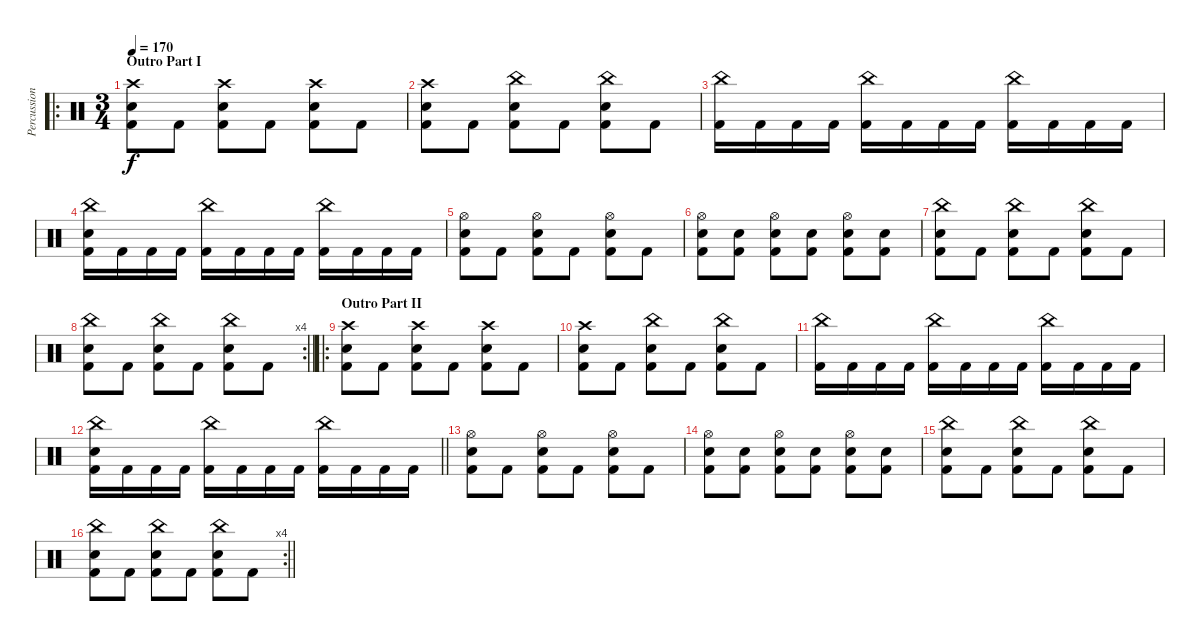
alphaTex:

\track ("Percussion" "Percussion") {instrument percussion}
\staff {score}
\articulation defaults
\ro
\ts (3 4)
\section ("" "Outro Part I")
\tempo 170
\clef neutral
\ks c
("Crash high (hit)" "Electric Snare (hit)" "Kick (hit) 2").8{dy f} "Kick (hit) 2".8 ("Crash high (hit)" "Electric Snare (hit)" "Kick (hit) 2").8 "Kick (hit) 2".8 ("Crash high (hit)" "Electric Snare (hit)" "Kick (hit) 2").8 "Kick (hit) 2".8 |
("Crash high (hit)" "Electric Snare (hit)" "Kick (hit) 2").8 "Kick (hit) 2".8 ("China (hit)" "Electric Snare (hit)" "Kick (hit) 2").8 "Kick (hit) 2".8 ("China (hit)" "Electric Snare (hit)" "Kick (hit) 2").8 "Kick (hit) 2".8 |
("China (hit)" "Kick (hit) 2").16 "Kick (hit) 2".16 "Kick (hit) 2".16 "Kick (hit) 2".16 ("China (hit)" "Kick (hit) 2").16 "Kick (hit) 2".16 "Kick (hit) 2".16 "Kick (hit) 2".16 ("China (hit)" "Kick (hit) 2").16 "Kick (hit) 2".16 "Kick (hit) 2".16 "Kick (hit) 2".16 |
("China (hit)" "Electric Snare (hit)" "Kick (hit) 2").16 "Kick (hit) 2".16 "Kick (hit) 2".16 "Kick (hit) 2".16 ("China (hit)" "Kick (hit) 2").16 "Kick (hit) 2".16 "Kick (hit) 2".16 "Kick (hit) 2".16 ("China (hit)" "Kick (hit) 2").16 "Kick (hit) 2".16 "Kick (hit) 2".16 "Kick (hit) 2".16 |
("Hi-Hat (open)" "Electric Snare (hit)" "Kick (hit) 2").8 "Kick (hit) 2".8 ("Hi-Hat (open)" "Electric Snare (hit)" "Kick (hit) 2").8 "Kick (hit) 2".8 ("Hi-Hat (open)" "Electric Snare (hit)" "Kick (hit) 2").8 "Kick (hit) 2".8 |
("Hi-Hat (open)" "Electric Snare (hit)" "Kick (hit) 2").8 ("Electric Snare (hit)" "Kick (hit) 2").8 ("Hi-Hat (open)" "Electric Snare (hit)" "Kick (hit) 2").8 ("Electric Snare (hit)" "Kick (hit) 2").8 ("Hi-Hat (open)" "Electric Snare (hit)" "Kick (hit) 2").8 ("Electric Snare (hit)" "Kick (hit) 2").8 |
("China (hit)" "Electric Snare (hit)" "Kick (hit) 2").8 "Kick (hit) 2".8 ("China (hit)" "Electric Snare (hit)" "Kick (hit) 2").8 "Kick (hit) 2".8 ("China (hit)" "Electric Snare (hit)" "Kick (hit) 2").8 "Kick (hit) 2".8 |
\rc 4
\barLineRight lightlight
("China (hit)" "Electric Snare (hit)" "Kick (hit) 2").8 "Kick (hit) 2".8 ("China (hit)" "Electric Snare (hit)" "Kick (hit) 2").8 "Kick (hit) 2".8 ("China (hit)" "Electric Snare (hit)" "Kick (hit) 2").8 "Kick (hit) 2".8 |
\ro
\section ("" "Outro Part II")
("Crash high (hit)" "Electric Snare (hit)" "Kick (hit) 2").8 "Kick (hit) 2".8 ("Crash high (hit)" "Electric Snare (hit)" "Kick (hit) 2").8 "Kick (hit) 2".8 ("Crash high (hit)" "Electric Snare (hit)" "Kick (hit) 2").8 "Kick (hit) 2".8 |
("Crash high (hit)" "Electric Snare (hit)" "Kick (hit) 2").8 "Kick (hit) 2".8 ("China (hit)" "Electric Snare (hit)" "Kick (hit) 2").8 "Kick (hit) 2".8 ("China (hit)" "Electric Snare (hit)" "Kick (hit) 2").8 "Kick (hit) 2".8 |
("China (hit)" "Kick (hit) 2").16 "Kick (hit) 2".16 "Kick (hit) 2".16 "Kick (hit) 2".16 ("China (hit)" "Kick (hit) 2").16 "Kick (hit) 2".16 "Kick (hit) 2".16 "Kick (hit) 2".16 ("China (hit)" "Kick (hit) 2").16 "Kick (hit) 2".16 "Kick (hit) 2".16 "Kick (hit) 2".16 |
\barLineRight lightlight
("China (hit)" "Electric Snare (hit)" "Kick (hit) 2").16 "Kick (hit) 2".16 "Kick (hit) 2".16 "Kick (hit) 2".16 ("China (hit)" "Kick (hit) 2").16 "Kick (hit) 2".16 "Kick (hit) 2".16 "Kick (hit) 2".16 ("China (hit)" "Kick (hit) 2").16 "Kick (hit) 2".16 "Kick (hit) 2".16 "Kick (hit) 2".16 |
("Hi-Hat (open)" "Electric Snare (hit)" "Kick (hit) 2").8 "Kick (hit) 2".8 ("Hi-Hat (open)" "Electric Snare (hit)" "Kick (hit) 2").8 "Kick (hit) 2".8 ("Hi-Hat (open)" "Electric Snare (hit)" "Kick (hit) 2").8 "Kick (hit) 2".8 |
("Hi-Hat (open)" "Electric Snare (hit)" "Kick (hit) 2").8 ("Electric Snare (hit)" "Kick (hit) 2").8 ("Hi-Hat (open)" "Electric Snare (hit)" "Kick (hit) 2").8 ("Electric Snare (hit)" "Kick (hit) 2").8 ("Hi-Hat (open)" "Electric Snare (hit)" "Kick (hit) 2").8 ("Electric Snare (hit)" "Kick (hit) 2").8 |
("China (hit)" "Electric Snare (hit)" "Kick (hit) 2").8 "Kick (hit) 2".8 ("China (hit)" "Electric Snare (hit)" "Kick (hit) 2").8 "Kick (hit) 2".8 ("China (hit)" "Electric Snare (hit)" "Kick (hit) 2").8 "Kick (hit) 2".8 |
\rc 4
\barLineRight lightlight
("China (hit)" "Electric Snare (hit)" "Kick (hit) 2").8 "Kick (hit) 2".8 ("China (hit)" "Electric Snare (hit)" "Kick (hit) 2").8 "Kick (hit) 2".8 ("China (hit)" "Electric Snare (hit)" "Kick (hit) 2").8 "Kick (hit) 2".8
